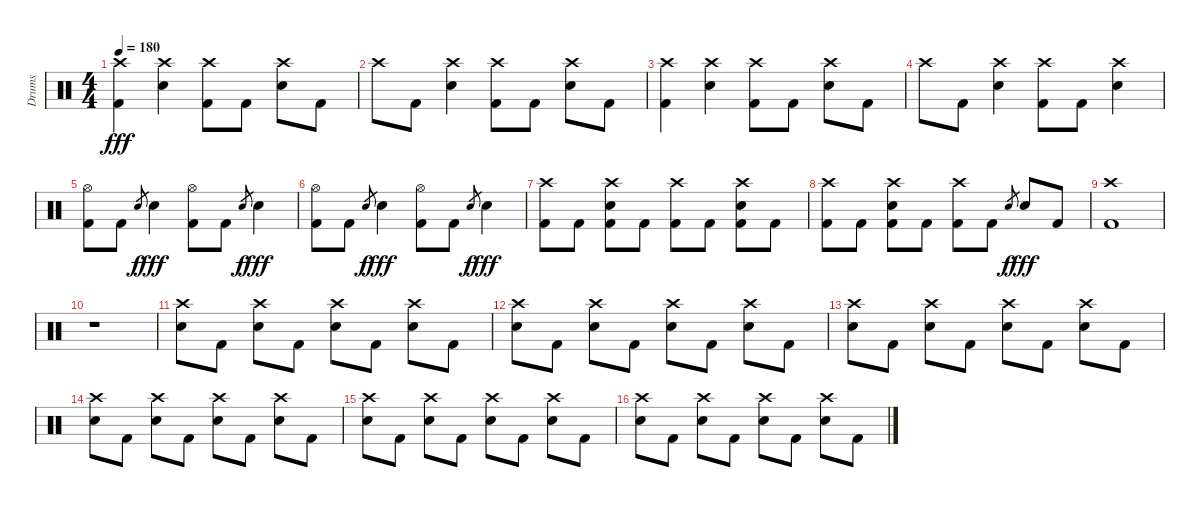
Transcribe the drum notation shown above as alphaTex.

\track ("Drums" "Drums") {instrument percussion}
\staff {score}
\articulation defaults
\ts (4 4)
\tempo 180
\clef neutral
\ks c
("Crash high (hit)" "Kick (hit) 2").4{dy fff} ("Crash high (hit)" "Electric Snare (hit)").4 ("Crash high (hit)" "Kick (hit) 2").8 "Kick (hit) 2".8 ("Crash high (hit)" "Electric Snare (hit)").8 "Kick (hit) 2".8 |
"Crash high (hit)".8 "Kick (hit) 2".8 ("Crash high (hit)" "Electric Snare (hit)").4 ("Crash high (hit)" "Kick (hit) 2").8 "Kick (hit) 2".8 ("Crash high (hit)" "Electric Snare (hit)").8 "Kick (hit) 2".8 |
("Crash high (hit)" "Kick (hit) 2").4 ("Crash high (hit)" "Electric Snare (hit)").4 ("Crash high (hit)" "Kick (hit) 2").8 "Kick (hit) 2".8 ("Crash high (hit)" "Electric Snare (hit)").8 "Kick (hit) 2".8 |
"Crash high (hit)".8 "Kick (hit) 2".8 ("Crash high (hit)" "Electric Snare (hit)").4 ("Crash high (hit)" "Kick (hit) 2").8 "Kick (hit) 2".8 ("Crash high (hit)" "Electric Snare (hit)").4 |
("Hi-Hat (open)" "Kick (hit) 2").8 "Kick (hit) 2".8 "Electric Snare (hit)".8{gr dy f} "Electric Snare (hit)".4{dy fff} ("Hi-Hat (open)" "Kick (hit) 2").8 "Kick (hit) 2".8 "Electric Snare (hit)".8{gr dy f} "Electric Snare (hit)".4{dy fff} |
("Hi-Hat (open)" "Kick (hit) 2").8 "Kick (hit) 2".8 "Electric Snare (hit)".8{gr dy f} "Electric Snare (hit)".4{dy fff} ("Hi-Hat (open)" "Kick (hit) 2").8 "Kick (hit) 2".8 "Electric Snare (hit)".8{gr dy f} "Electric Snare (hit)".4{dy fff} |
("Crash high (hit)" "Kick (hit) 2").8 "Kick (hit) 2".8 ("Crash high (hit)" "Electric Snare (hit)" "Kick (hit) 2").8 "Kick (hit) 2".8 ("Crash high (hit)" "Kick (hit) 2").8 "Kick (hit) 2".8 ("Crash high (hit)" "Electric Snare (hit)" "Kick (hit) 2").8 "Kick (hit) 2".8 |
("Crash high (hit)" "Kick (hit) 2").8 "Kick (hit) 2".8 ("Crash high (hit)" "Electric Snare (hit)" "Kick (hit) 2").8 "Kick (hit) 2".8 ("Crash high (hit)" "Kick (hit) 2").8 "Kick (hit) 2".8 "Electric Snare (hit)".8{gr dy f} "Electric Snare (hit)".8{dy fff} "Kick (hit) 2".8 |
("Crash high (hit)" "Kick (hit) 2").1 |
r.1 |
("Crash high (hit)" "Electric Snare (hit)").8 "Kick (hit) 2".8 ("Crash high (hit)" "Electric Snare (hit)").8 "Kick (hit) 2".8 ("Crash high (hit)" "Electric Snare (hit)").8 "Kick (hit) 2".8 ("Crash high (hit)" "Electric Snare (hit)").8 "Kick (hit) 2".8 |
("Crash high (hit)" "Electric Snare (hit)").8 "Kick (hit) 2".8 ("Crash high (hit)" "Electric Snare (hit)").8 "Kick (hit) 2".8 ("Crash high (hit)" "Electric Snare (hit)").8 "Kick (hit) 2".8 ("Crash high (hit)" "Electric Snare (hit)").8 "Kick (hit) 2".8 |
("Crash high (hit)" "Electric Snare (hit)").8 "Kick (hit) 2".8 ("Crash high (hit)" "Electric Snare (hit)").8 "Kick (hit) 2".8 ("Crash high (hit)" "Electric Snare (hit)").8 "Kick (hit) 2".8 ("Crash high (hit)" "Electric Snare (hit)").8 "Kick (hit) 2".8 |
("Crash high (hit)" "Electric Snare (hit)").8 "Kick (hit) 2".8 ("Crash high (hit)" "Electric Snare (hit)").8 "Kick (hit) 2".8 ("Crash high (hit)" "Electric Snare (hit)").8 "Kick (hit) 2".8 ("Crash high (hit)" "Electric Snare (hit)").8 "Kick (hit) 2".8 |
("Crash high (hit)" "Electric Snare (hit)").8 "Kick (hit) 2".8 ("Crash high (hit)" "Electric Snare (hit)").8 "Kick (hit) 2".8 ("Crash high (hit)" "Electric Snare (hit)").8 "Kick (hit) 2".8 ("Crash high (hit)" "Electric Snare (hit)").8 "Kick (hit) 2".8 |
("Crash high (hit)" "Electric Snare (hit)").8 "Kick (hit) 2".8 ("Crash high (hit)" "Electric Snare (hit)").8 "Kick (hit) 2".8 ("Crash high (hit)" "Electric Snare (hit)").8 "Kick (hit) 2".8 ("Crash high (hit)" "Electric Snare (hit)").8 "Kick (hit) 2".8
